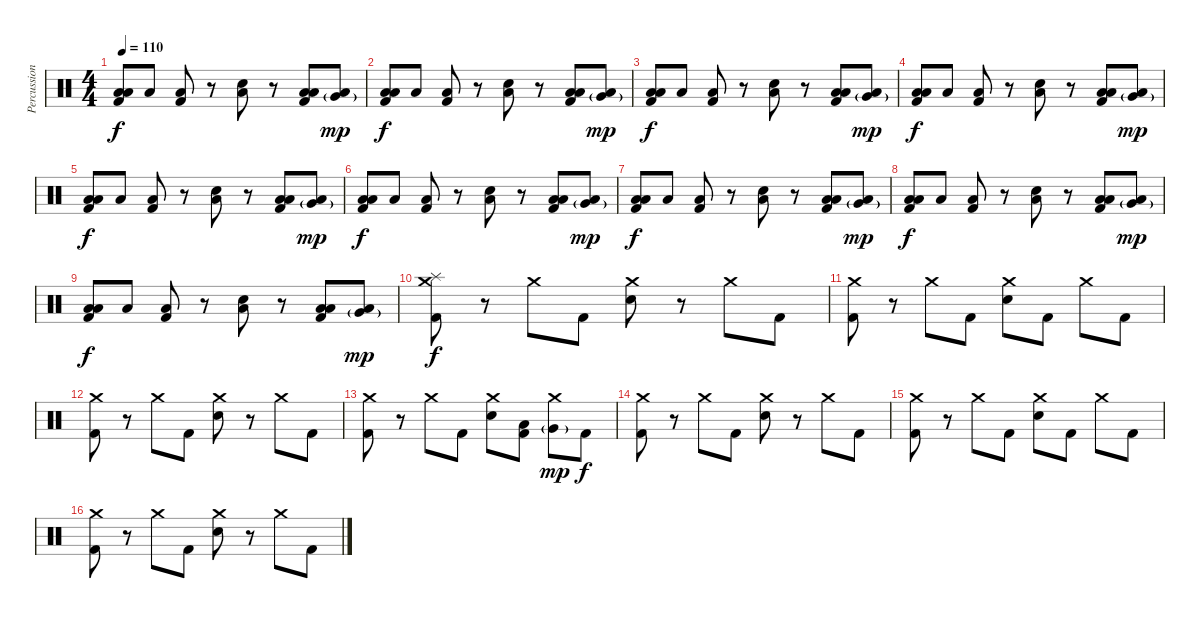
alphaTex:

\track ("Percussions" "Percussion") {instrument percussion}
\staff {score}
\articulation defaults
\ts (4 4)
\tempo 110
\clef neutral
\ks c
("Low Tom (hit)" "Low Floor Tom (hit)" "Kick (hit) 2").8{dy f} "Low Floor Tom (hit)".8 ("Low Tom (hit)" "Kick (hit) 2").8 r.8 ("Low Floor Tom (hit)" "Snare (hit) 2").8 r.8 ("Low Tom (hit)" "Low Floor Tom (hit)" "Kick (hit) 2").8 ("Very Low Tom (hit)"{g} "Low Floor Tom (hit)").8{dy mp} |
("Low Tom (hit)" "Low Floor Tom (hit)" "Kick (hit) 2").8{dy f} "Low Floor Tom (hit)".8 ("Low Tom (hit)" "Kick (hit) 2").8 r.8 ("Low Floor Tom (hit)" "Snare (hit) 2").8 r.8 ("Low Tom (hit)" "Low Floor Tom (hit)" "Kick (hit) 2").8 ("Very Low Tom (hit)"{g} "Low Floor Tom (hit)").8{dy mp} |
("Low Tom (hit)" "Low Floor Tom (hit)" "Kick (hit) 2").8{dy f} "Low Floor Tom (hit)".8 ("Low Tom (hit)" "Kick (hit) 2").8 r.8 ("Low Floor Tom (hit)" "Snare (hit) 2").8 r.8 ("Low Tom (hit)" "Low Floor Tom (hit)" "Kick (hit) 2").8 ("Very Low Tom (hit)"{g} "Low Floor Tom (hit)").8{dy mp} |
("Low Tom (hit)" "Low Floor Tom (hit)" "Kick (hit) 2").8{dy f} "Low Floor Tom (hit)".8 ("Low Tom (hit)" "Kick (hit) 2").8 r.8 ("Low Floor Tom (hit)" "Snare (hit) 2").8 r.8 ("Low Tom (hit)" "Low Floor Tom (hit)" "Kick (hit) 2").8 ("Very Low Tom (hit)"{g} "Low Floor Tom (hit)").8{dy mp} |
("Low Tom (hit)" "Low Floor Tom (hit)" "Kick (hit) 2").8{dy f} "Low Floor Tom (hit)".8 ("Low Tom (hit)" "Kick (hit) 2").8 r.8 ("Low Floor Tom (hit)" "Snare (hit) 2").8 r.8 ("Low Tom (hit)" "Low Floor Tom (hit)" "Kick (hit) 2").8 ("Very Low Tom (hit)"{g} "Low Floor Tom (hit)").8{dy mp} |
("Low Tom (hit)" "Low Floor Tom (hit)" "Kick (hit) 2").8{dy f} "Low Floor Tom (hit)".8 ("Low Tom (hit)" "Kick (hit) 2").8 r.8 ("Low Floor Tom (hit)" "Snare (hit) 2").8 r.8 ("Low Tom (hit)" "Low Floor Tom (hit)" "Kick (hit) 2").8 ("Very Low Tom (hit)"{g} "Low Floor Tom (hit)").8{dy mp} |
("Low Tom (hit)" "Low Floor Tom (hit)" "Kick (hit) 2").8{dy f} "Low Floor Tom (hit)".8 ("Low Tom (hit)" "Kick (hit) 2").8 r.8 ("Low Floor Tom (hit)" "Snare (hit) 2").8 r.8 ("Low Tom (hit)" "Low Floor Tom (hit)" "Kick (hit) 2").8 ("Very Low Tom (hit)"{g} "Low Floor Tom (hit)").8{dy mp} |
("Low Tom (hit)" "Low Floor Tom (hit)" "Kick (hit) 2").8{dy f} "Low Floor Tom (hit)".8 ("Low Tom (hit)" "Kick (hit) 2").8 r.8 ("Low Floor Tom (hit)" "Snare (hit) 2").8 r.8 ("Low Tom (hit)" "Low Floor Tom (hit)" "Kick (hit) 2").8 ("Very Low Tom (hit)"{g} "Low Floor Tom (hit)").8{dy mp} |
("Low Tom (hit)" "Low Floor Tom (hit)" "Kick (hit) 2").8{dy f} "Low Floor Tom (hit)".8 ("Low Tom (hit)" "Kick (hit) 2").8 r.8 ("Low Floor Tom (hit)" "Snare (hit) 2").8 r.8 ("Low Tom (hit)" "Low Floor Tom (hit)" "Kick (hit) 2").8 ("Very Low Tom (hit)"{g} "Low Floor Tom (hit)").8{dy mp} |
("Crash medium (hit)" "Splash (hit)" "Kick (hit) 2").8{dy f} r.8 "Crash medium (hit)".8 "Kick (hit) 2".8 ("Crash medium (hit)" "Snare (hit) 2").8 r.8 "Crash medium (hit)".8 "Kick (hit) 2".8 |
("Crash medium (hit)" "Kick (hit) 2").8 r.8 "Crash medium (hit)".8 "Kick (hit) 2".8 ("Crash medium (hit)" "Snare (hit) 2").8 "Kick (hit) 2".8 "Crash medium (hit)".8 "Kick (hit) 2".8 |
("Crash medium (hit)" "Kick (hit) 2").8 r.8 "Crash medium (hit)".8 "Kick (hit) 2".8 ("Crash medium (hit)" "Snare (hit) 2").8 r.8 "Crash medium (hit)".8 "Kick (hit) 2".8 |
("Crash medium (hit)" "Kick (hit) 2").8 r.8 "Crash medium (hit)".8 "Kick (hit) 2".8 ("Crash medium (hit)" "Snare (hit) 2").8 ("Low Tom (hit)" "Kick (hit) 2").8 ("Crash medium (hit)" "Very Low Tom (hit)"{g}).8{dy mp} "Kick (hit) 2".8{dy f} |
("Crash medium (hit)" "Kick (hit) 2").8 r.8 "Crash medium (hit)".8 "Kick (hit) 2".8 ("Crash medium (hit)" "Snare (hit) 2").8 r.8 "Crash medium (hit)".8 "Kick (hit) 2".8 |
("Crash medium (hit)" "Kick (hit) 2").8 r.8 "Crash medium (hit)".8 "Kick (hit) 2".8 ("Crash medium (hit)" "Snare (hit) 2").8 "Kick (hit) 2".8 "Crash medium (hit)".8 "Kick (hit) 2".8 |
("Crash medium (hit)" "Kick (hit) 2").8 r.8 "Crash medium (hit)".8 "Kick (hit) 2".8 ("Crash medium (hit)" "Snare (hit) 2").8 r.8 "Crash medium (hit)".8 "Kick (hit) 2".8
